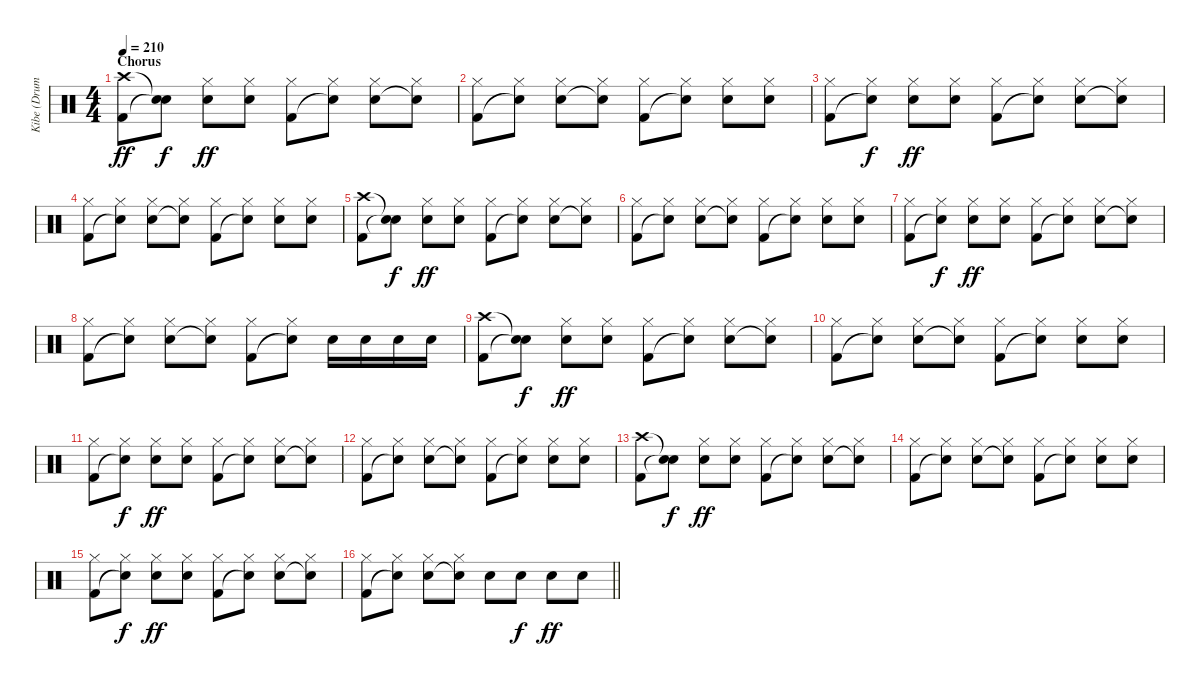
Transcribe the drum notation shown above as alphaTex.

\track ("Kibe (Drums)" "Kibe (Drum") {instrument percussion}
\staff {score}
\articulation defaults
\ts (4 4)
\section ("" "Chorus")
\tempo 210
\clef neutral
\ks c
("Crash high (hit)" "Kick (hit) 2").8{dy ff} ("Snare (hit)"{t} "Snare (hit)"{t}).8{dy f} ("Hi-Hat (closed)" "Snare (hit) 2").8{dy ff} ("Hi-Hat (closed)" "Snare (hit) 2").8 ("Hi-Hat (closed)" "Kick (hit) 2").8 ("Hi-Hat (closed)" "Snare (hit)"{t}).8 ("Hi-Hat (closed)" "Snare (hit) 2").8 ("Hi-Hat (closed)" "Snare (hit)"{t}).8 |
("Hi-Hat (closed)" "Kick (hit) 2").8 ("Hi-Hat (closed)" "Snare (hit)"{t}).8 ("Hi-Hat (closed)" "Snare (hit) 2").8 ("Hi-Hat (closed)" "Snare (hit)"{t}).8 ("Hi-Hat (closed)" "Kick (hit) 2").8 ("Hi-Hat (closed)" "Snare (hit)"{t}).8 ("Hi-Hat (closed)" "Snare (hit) 2").8 ("Hi-Hat (closed)" "Snare (hit) 2").8 |
("Hi-Hat (closed)" "Kick (hit) 2").8 ("Hi-Hat (closed)" "Snare (hit)"{t}).8{dy f} ("Hi-Hat (closed)" "Snare (hit) 2").8{dy ff} ("Hi-Hat (closed)" "Snare (hit) 2").8 ("Hi-Hat (closed)" "Kick (hit) 2").8 ("Hi-Hat (closed)" "Snare (hit)"{t}).8 ("Hi-Hat (closed)" "Snare (hit) 2").8 ("Hi-Hat (closed)" "Snare (hit)"{t}).8 |
("Hi-Hat (closed)" "Kick (hit) 2").8 ("Hi-Hat (closed)" "Snare (hit)"{t}).8 ("Hi-Hat (closed)" "Snare (hit) 2").8 ("Hi-Hat (closed)" "Snare (hit)"{t}).8 ("Hi-Hat (closed)" "Kick (hit) 2").8 ("Hi-Hat (closed)" "Snare (hit)"{t}).8 ("Hi-Hat (closed)" "Snare (hit) 2").8 ("Hi-Hat (closed)" "Snare (hit) 2").8 |
("Crash high (hit)" "Kick (hit) 2").8 ("Snare (hit)"{t} "Snare (hit)"{t}).8{dy f} ("Hi-Hat (closed)" "Snare (hit) 2").8{dy ff} ("Hi-Hat (closed)" "Snare (hit) 2").8 ("Hi-Hat (closed)" "Kick (hit) 2").8 ("Hi-Hat (closed)" "Snare (hit)"{t}).8 ("Hi-Hat (closed)" "Snare (hit) 2").8 ("Hi-Hat (closed)" "Snare (hit)"{t}).8 |
("Hi-Hat (closed)" "Kick (hit) 2").8 ("Hi-Hat (closed)" "Snare (hit)"{t}).8 ("Hi-Hat (closed)" "Snare (hit) 2").8 ("Hi-Hat (closed)" "Snare (hit)"{t}).8 ("Hi-Hat (closed)" "Kick (hit) 2").8 ("Hi-Hat (closed)" "Snare (hit)"{t}).8 ("Hi-Hat (closed)" "Snare (hit) 2").8 ("Hi-Hat (closed)" "Snare (hit) 2").8 |
("Hi-Hat (closed)" "Kick (hit) 2").8 ("Hi-Hat (closed)" "Snare (hit)"{t}).8{dy f} ("Hi-Hat (closed)" "Snare (hit) 2").8{dy ff} ("Hi-Hat (closed)" "Snare (hit) 2").8 ("Hi-Hat (closed)" "Kick (hit) 2").8 ("Hi-Hat (closed)" "Snare (hit)"{t}).8 ("Hi-Hat (closed)" "Snare (hit) 2").8 ("Hi-Hat (closed)" "Snare (hit)"{t}).8 |
("Hi-Hat (closed)" "Kick (hit) 2").8 ("Hi-Hat (closed)" "Snare (hit)"{t}).8 ("Hi-Hat (closed)" "Snare (hit) 2").8 ("Hi-Hat (closed)" "Snare (hit)"{t}).8 ("Hi-Hat (closed)" "Kick (hit) 2").8 ("Hi-Hat (closed)" "Snare (hit)"{t}).8 "Snare (hit) 2".16 "Snare (hit) 2".16 "Snare (hit) 2".16 "Snare (hit) 2".16 |
("Crash high (hit)" "Kick (hit) 2").8 ("Snare (hit)"{t} "Snare (hit)"{t}).8{dy f} ("Hi-Hat (closed)" "Snare (hit) 2").8{dy ff} ("Hi-Hat (closed)" "Snare (hit) 2").8 ("Hi-Hat (closed)" "Kick (hit) 2").8 ("Hi-Hat (closed)" "Snare (hit)"{t}).8 ("Hi-Hat (closed)" "Snare (hit) 2").8 ("Hi-Hat (closed)" "Snare (hit)"{t}).8 |
("Hi-Hat (closed)" "Kick (hit) 2").8 ("Hi-Hat (closed)" "Snare (hit)"{t}).8 ("Hi-Hat (closed)" "Snare (hit) 2").8 ("Hi-Hat (closed)" "Snare (hit)"{t}).8 ("Hi-Hat (closed)" "Kick (hit) 2").8 ("Hi-Hat (closed)" "Snare (hit)"{t}).8 ("Hi-Hat (closed)" "Snare (hit) 2").8 ("Hi-Hat (closed)" "Snare (hit) 2").8 |
("Hi-Hat (closed)" "Kick (hit) 2").8 ("Hi-Hat (closed)" "Snare (hit)"{t}).8{dy f} ("Hi-Hat (closed)" "Snare (hit) 2").8{dy ff} ("Hi-Hat (closed)" "Snare (hit) 2").8 ("Hi-Hat (closed)" "Kick (hit) 2").8 ("Hi-Hat (closed)" "Snare (hit)"{t}).8 ("Hi-Hat (closed)" "Snare (hit) 2").8 ("Hi-Hat (closed)" "Snare (hit)"{t}).8 |
("Hi-Hat (closed)" "Kick (hit) 2").8 ("Hi-Hat (closed)" "Snare (hit)"{t}).8 ("Hi-Hat (closed)" "Snare (hit) 2").8 ("Hi-Hat (closed)" "Snare (hit)"{t}).8 ("Hi-Hat (closed)" "Kick (hit) 2").8 ("Hi-Hat (closed)" "Snare (hit)"{t}).8 ("Hi-Hat (closed)" "Snare (hit) 2").8 ("Hi-Hat (closed)" "Snare (hit) 2").8 |
("Crash high (hit)" "Kick (hit) 2").8 ("Snare (hit)"{t} "Snare (hit)"{t}).8{dy f} ("Hi-Hat (closed)" "Snare (hit) 2").8{dy ff} ("Hi-Hat (closed)" "Snare (hit) 2").8 ("Hi-Hat (closed)" "Kick (hit) 2").8 ("Hi-Hat (closed)" "Snare (hit)"{t}).8 ("Hi-Hat (closed)" "Snare (hit) 2").8 ("Hi-Hat (closed)" "Snare (hit)"{t}).8 |
("Hi-Hat (closed)" "Kick (hit) 2").8 ("Hi-Hat (closed)" "Snare (hit)"{t}).8 ("Hi-Hat (closed)" "Snare (hit) 2").8 ("Hi-Hat (closed)" "Snare (hit)"{t}).8 ("Hi-Hat (closed)" "Kick (hit) 2").8 ("Hi-Hat (closed)" "Snare (hit)"{t}).8 ("Hi-Hat (closed)" "Snare (hit) 2").8 ("Hi-Hat (closed)" "Snare (hit) 2").8 |
("Hi-Hat (closed)" "Kick (hit) 2").8 ("Hi-Hat (closed)" "Snare (hit)"{t}).8{dy f} ("Hi-Hat (closed)" "Snare (hit) 2").8{dy ff} ("Hi-Hat (closed)" "Snare (hit) 2").8 ("Hi-Hat (closed)" "Kick (hit) 2").8 ("Hi-Hat (closed)" "Snare (hit)"{t}).8 ("Hi-Hat (closed)" "Snare (hit) 2").8 ("Hi-Hat (closed)" "Snare (hit)"{t}).8 |
\barLineRight lightlight
("Hi-Hat (closed)" "Kick (hit) 2").8 ("Hi-Hat (closed)" "Snare (hit)"{t}).8 ("Hi-Hat (closed)" "Snare (hit) 2").8 ("Hi-Hat (closed)" "Snare (hit)"{t}).8 "Snare (hit) 2".8 "Snare (hit) 2".8{dy f} "Snare (hit) 2".8{dy ff} "Snare (hit) 2".8
